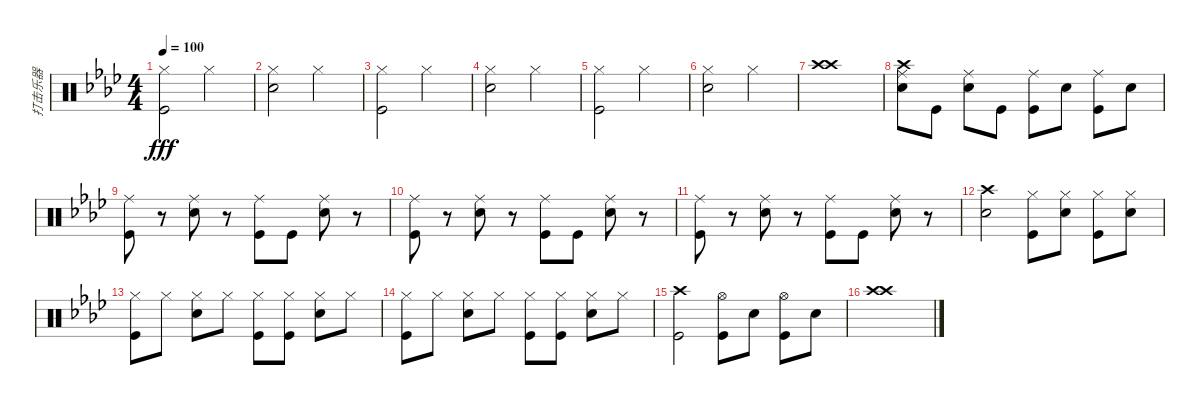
\track ("打击乐器" "打击乐器") {instrument percussion}
\staff {score}
\articulation defaults
\ts (4 4)
\tempo 100
\clef neutral
\ks ab
("Kick (hit)" "Hi-Hat (closed)").2{dy fff} "Hi-Hat (closed)".2 |
("Snare (hit) 2" "Hi-Hat (closed)").2 "Hi-Hat (closed)".2 |
("Kick (hit)" "Hi-Hat (closed)").2 "Hi-Hat (closed)".2 |
("Snare (hit) 2" "Hi-Hat (closed)").2 "Hi-Hat (closed)".2 |
("Kick (hit)" "Hi-Hat (closed)").2 "Hi-Hat (closed)".2 |
("Snare (hit) 2" "Hi-Hat (closed)").2 "Hi-Hat (closed)".2 |
("Crash high (hit)" "Crash high (hit)").1 |
("Snare (hit) 2" "Crash high (hit)" "Ride (middle)").8 "Kick (hit)".8 ("Snare (hit) 2" "Ride (middle)").8 "Kick (hit)".8 ("Ride (middle)" "Kick (hit)").8 "Snare (hit) 2".8 ("Ride (middle)" "Kick (hit)").8 "Snare (hit) 2".8 |
("Ride (middle)" "Kick (hit)").8 r.8 ("Snare (hit) 2" "Ride (middle)").8 r.8 ("Ride (middle)" "Kick (hit)").8 "Kick (hit)".8 ("Snare (hit) 2" "Ride (middle)").8 r.8 |
("Ride (middle)" "Kick (hit)").8 r.8 ("Snare (hit) 2" "Ride (middle)").8 r.8 ("Ride (middle)" "Kick (hit)").8 "Kick (hit)".8 ("Snare (hit) 2" "Ride (middle)").8 r.8 |
("Ride (middle)" "Kick (hit)").8 r.8 ("Snare (hit) 2" "Ride (middle)").8 r.8 ("Ride (middle)" "Kick (hit)").8 "Kick (hit)".8 ("Snare (hit) 2" "Ride (middle)").8 r.8 |
("Crash high (hit)" "Snare (hit) 2").2 ("Kick (hit)" "Hi-Hat (closed)").8 ("Snare (hit) 2" "Hi-Hat (closed)").8 ("Kick (hit)" "Hi-Hat (closed)").8 ("Snare (hit) 2" "Hi-Hat (closed)").8 |
("Hi-Hat (closed)" "Kick (hit)").8 "Hi-Hat (closed)".8 ("Hi-Hat (closed)" "Snare (hit) 2").8 "Hi-Hat (closed)".8 ("Hi-Hat (closed)" "Kick (hit)").8 ("Kick (hit)" "Hi-Hat (closed)").8 ("Hi-Hat (closed)" "Snare (hit) 2").8 "Hi-Hat (closed)".8 |
("Hi-Hat (closed)" "Kick (hit)").8 "Hi-Hat (closed)".8 ("Hi-Hat (closed)" "Snare (hit) 2").8 "Hi-Hat (closed)".8 ("Hi-Hat (closed)" "Kick (hit)").8 ("Kick (hit)" "Hi-Hat (closed)").8 ("Hi-Hat (closed)" "Snare (hit) 2").8 "Hi-Hat (closed)".8 |
("Crash high (hit)" "Kick (hit)").2 ("Kick (hit)" "Hi-Hat (open)").8 "Snare (hit) 2".8 ("Kick (hit)" "Hi-Hat (open)").8 "Snare (hit) 2".8 |
("Crash high (hit)" "Crash high (hit)").1
